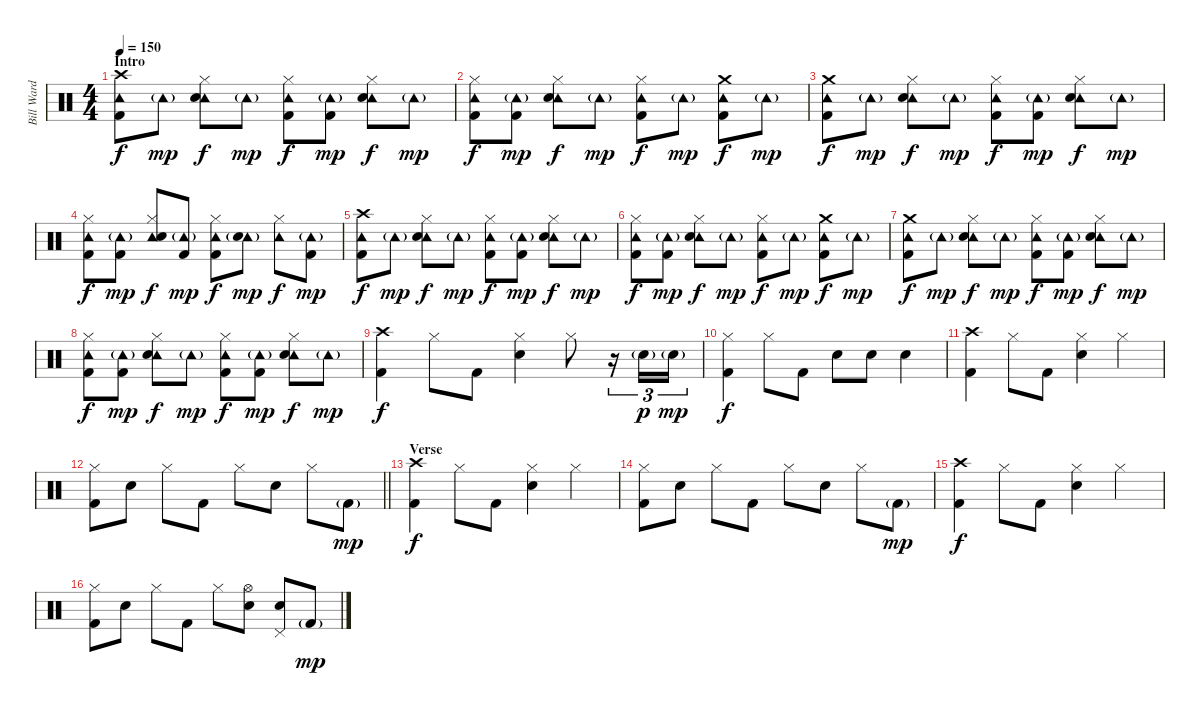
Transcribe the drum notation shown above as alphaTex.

\track ("Bill Ward" "Bill Ward") {instrument percussion}
\staff {score}
\articulation defaults
\ts (4 4)
\section ("" "Intro")
\tempo 150
\clef neutral
\ks c
("Crash high (hit)" "Tambourine (hit)" "Kick (hit) 2").8{dy f} "Tambourine (hit)"{g}.8{dy mp} ("Hi-Hat (closed)" "Tambourine (hit)" "Electric Snare (hit)").8{dy f} "Tambourine (hit)"{g}.8{dy mp} ("Hi-Hat (closed)" "Tambourine (hit)" "Kick (hit) 2").8{dy f} ("Tambourine (hit)"{g} "Kick (hit) 2").8{dy mp} ("Hi-Hat (closed)" "Tambourine (hit)" "Electric Snare (hit)").8{dy f} "Tambourine (hit)"{g}.8{dy mp} |
("Hi-Hat (closed)" "Tambourine (hit)" "Kick (hit) 2").8{dy f} ("Tambourine (hit)"{g} "Kick (hit) 2").8{dy mp} ("Hi-Hat (closed)" "Tambourine (hit)" "Electric Snare (hit)").8{dy f} "Tambourine (hit)"{g}.8{dy mp} ("Hi-Hat (closed)" "Tambourine (hit)" "Kick (hit) 2").8{dy f} "Tambourine (hit)"{g}.8{dy mp} ("Crash medium (hit)" "Tambourine (hit)" "Kick (hit) 2").8{dy f} "Tambourine (hit)"{g}.8{dy mp} |
("Crash medium (hit)" "Tambourine (hit)" "Kick (hit) 2").8{dy f} "Tambourine (hit)"{g}.8{dy mp} ("Hi-Hat (closed)" "Tambourine (hit)" "Electric Snare (hit)").8{dy f} "Tambourine (hit)"{g}.8{dy mp} ("Hi-Hat (closed)" "Tambourine (hit)" "Kick (hit) 2").8{dy f} ("Tambourine (hit)"{g} "Kick (hit) 2").8{dy mp} ("Hi-Hat (closed)" "Tambourine (hit)" "Electric Snare (hit)").8{dy f} "Tambourine (hit)"{g}.8{dy mp} |
("Hi-Hat (closed)" "Tambourine (hit)" "Kick (hit) 2").8{dy f} ("Tambourine (hit)"{g} "Kick (hit) 2").8{dy mp} ("Hi-Hat (closed)" "Tambourine (hit)" "Electric Snare (hit)").8{dy f} ("Tambourine (hit)"{g} "Kick (hit) 2").8{dy mp} ("Hi-Hat (closed)" "Tambourine (hit)" "Kick (hit) 2").8{dy f} ("Tambourine (hit)"{g} "Electric Snare (hit)").8{dy mp} ("Hi-Hat (closed)" "Tambourine (hit)").8{dy f} ("Tambourine (hit)"{g} "Kick (hit) 2").8{dy mp} |
("Crash high (hit)" "Tambourine (hit)" "Kick (hit) 2").8{dy f} "Tambourine (hit)"{g}.8{dy mp} ("Hi-Hat (closed)" "Tambourine (hit)" "Electric Snare (hit)").8{dy f} "Tambourine (hit)"{g}.8{dy mp} ("Hi-Hat (closed)" "Tambourine (hit)" "Kick (hit) 2").8{dy f} ("Tambourine (hit)"{g} "Kick (hit) 2").8{dy mp} ("Hi-Hat (closed)" "Tambourine (hit)" "Electric Snare (hit)").8{dy f} "Tambourine (hit)"{g}.8{dy mp} |
("Hi-Hat (closed)" "Tambourine (hit)" "Kick (hit) 2").8{dy f} ("Tambourine (hit)"{g} "Kick (hit) 2").8{dy mp} ("Hi-Hat (closed)" "Tambourine (hit)" "Electric Snare (hit)").8{dy f} "Tambourine (hit)"{g}.8{dy mp} ("Hi-Hat (closed)" "Tambourine (hit)" "Kick (hit) 2").8{dy f} "Tambourine (hit)"{g}.8{dy mp} ("Crash medium (hit)" "Tambourine (hit)" "Kick (hit) 2").8{dy f} "Tambourine (hit)"{g}.8{dy mp} |
("Crash medium (hit)" "Tambourine (hit)" "Kick (hit) 2").8{dy f} "Tambourine (hit)"{g}.8{dy mp} ("Hi-Hat (closed)" "Tambourine (hit)" "Electric Snare (hit)").8{dy f} "Tambourine (hit)"{g}.8{dy mp} ("Hi-Hat (closed)" "Tambourine (hit)" "Kick (hit) 2").8{dy f} ("Tambourine (hit)"{g} "Kick (hit) 2").8{dy mp} ("Hi-Hat (closed)" "Tambourine (hit)" "Electric Snare (hit)").8{dy f} "Tambourine (hit)"{g}.8{dy mp} |
("Hi-Hat (closed)" "Tambourine (hit)" "Kick (hit) 2").8{dy f} ("Tambourine (hit)"{g} "Kick (hit) 2").8{dy mp} ("Hi-Hat (closed)" "Tambourine (hit)" "Electric Snare (hit)").8{dy f} "Tambourine (hit)"{g}.8{dy mp} ("Hi-Hat (closed)" "Tambourine (hit)" "Kick (hit) 2").8{dy f} ("Tambourine (hit)"{g} "Kick (hit) 2").8{dy mp} ("Hi-Hat (closed)" "Tambourine (hit)" "Electric Snare (hit)").8{dy f} "Tambourine (hit)"{g}.8{dy mp} |
("Crash high (hit)" "Kick (hit) 2").4{dy f} "Hi-Hat (closed)".8 "Kick (hit) 2".8 ("Hi-Hat (closed)" "Electric Snare (hit)").4 "Hi-Hat (closed)".8 r.16{tu (3 2)} "Electric Snare (hit)"{g}.16{tu (3 2) dy p} "Electric Snare (hit)"{g}.16{tu (3 2) dy mp} |
("Hi-Hat (closed)" "Kick (hit) 2").4{dy f} "Hi-Hat (closed)".8 "Kick (hit) 2".8 "Electric Snare (hit)".8 "Electric Snare (hit)".8 "Electric Snare (hit)".4 |
("Crash high (hit)" "Kick (hit) 2").4 "Hi-Hat (closed)".8 "Kick (hit) 2".8 ("Hi-Hat (closed)" "Electric Snare (hit)").4 "Hi-Hat (closed)".4 |
\barLineRight lightlight
("Hi-Hat (closed)" "Kick (hit) 2").8 "Electric Snare (hit)".8 "Hi-Hat (closed)".8 "Kick (hit) 2".8 "Hi-Hat (closed)".8 "Electric Snare (hit)".8 "Hi-Hat (closed)".8 "Kick (hit) 2"{g}.8{dy mp} |
\section ("" "Verse")
("Crash high (hit)" "Kick (hit) 2").4{dy f} "Hi-Hat (closed)".8 "Kick (hit) 2".8 ("Hi-Hat (closed)" "Electric Snare (hit)").4 "Hi-Hat (closed)".4 |
("Hi-Hat (closed)" "Kick (hit) 2").8 "Electric Snare (hit)".8 "Hi-Hat (closed)".8 "Kick (hit) 2".8 "Hi-Hat (closed)".8 "Electric Snare (hit)".8 "Hi-Hat (closed)".8 "Kick (hit) 2"{g}.8{dy mp} |
("Crash high (hit)" "Kick (hit) 2").4{dy f} "Hi-Hat (closed)".8 "Kick (hit) 2".8 ("Hi-Hat (closed)" "Electric Snare (hit)").4 "Hi-Hat (closed)".4 |
("Hi-Hat (closed)" "Kick (hit) 2").8 "Electric Snare (hit)".8 "Hi-Hat (closed)".8 "Kick (hit) 2".8 "Hi-Hat (closed)".8 ("Hi-Hat (open)" "Electric Snare (hit)").8 ("Pedal Hi-Hat (hit)" "Electric Snare (hit)").8 "Kick (hit) 2"{g}.8{dy mp}
